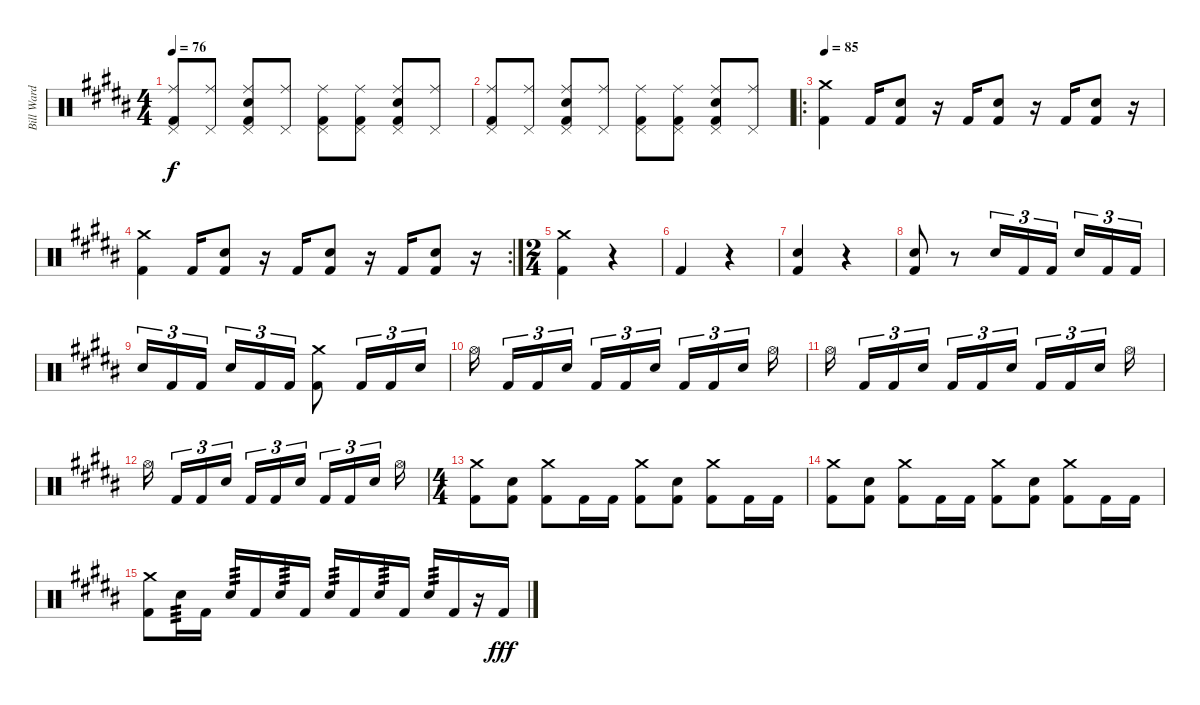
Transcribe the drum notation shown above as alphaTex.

\track ("Bill Ward" "Bill Ward") {instrument percussion}
\staff {score}
\articulation defaults
\ts (4 4)
\tempo 76
\clef neutral
\ks b
("Ride (middle)" "Pedal Hi-Hat (hit)" "Kick (hit) 2").8{dy f} ("Ride (middle)" "Pedal Hi-Hat (hit)").8 ("Ride (middle)" "Pedal Hi-Hat (hit)" "Snare (hit) 2" "Kick (hit) 2").8 ("Ride (middle)" "Pedal Hi-Hat (hit)").8 ("Ride (middle)" "Pedal Hi-Hat (hit)" "Kick (hit) 2").8 ("Ride (middle)" "Pedal Hi-Hat (hit)" "Kick (hit) 2").8 ("Ride (middle)" "Pedal Hi-Hat (hit)" "Snare (hit) 2" "Kick (hit) 2").8 ("Ride (middle)" "Pedal Hi-Hat (hit)").8 |
("Ride (middle)" "Pedal Hi-Hat (hit)" "Kick (hit) 2").8 ("Ride (middle)" "Pedal Hi-Hat (hit)").8 ("Ride (middle)" "Pedal Hi-Hat (hit)" "Snare (hit) 2" "Kick (hit) 2").8 ("Ride (middle)" "Pedal Hi-Hat (hit)").8 ("Ride (middle)" "Pedal Hi-Hat (hit)" "Kick (hit) 2").8 ("Ride (middle)" "Pedal Hi-Hat (hit)" "Kick (hit) 2").8 ("Ride (middle)" "Pedal Hi-Hat (hit)" "Snare (hit) 2" "Kick (hit) 2").8 ("Ride (middle)" "Pedal Hi-Hat (hit)").8 |
\ro
\tempo 85
("Crash medium (hit)" "Kick (hit) 2").4 "Kick (hit) 2".16 ("Snare (hit) 2" "Kick (hit) 2").8 r.16 "Kick (hit) 2".16 ("Snare (hit) 2" "Kick (hit) 2").8 r.16 "Kick (hit) 2".16 ("Snare (hit) 2" "Kick (hit) 2").8 r.16 |
\rc 2
("Crash medium (hit)" "Kick (hit) 2").4 "Kick (hit) 2".16 ("Snare (hit) 2" "Kick (hit) 2").8 r.16 "Kick (hit) 2".16 ("Snare (hit) 2" "Kick (hit) 2").8 r.16 "Kick (hit) 2".16 ("Snare (hit) 2" "Kick (hit) 2").8 r.16 |
\ts (2 4)
("Crash medium (hit)" "Kick (hit) 2").4 r.4 |
"Kick (hit) 2".4 r.4 |
("Snare (hit) 2" "Kick (hit) 2").4 r.4 |
("Snare (hit) 2" "Kick (hit) 2").8 r.8 "Snare (hit) 2".16{tu (3 2)} "Kick (hit) 2".16{tu (3 2)} "Kick (hit) 2".16{tu (3 2) beam splitsecondary} "Snare (hit) 2".16{tu (3 2)} "Kick (hit) 2".16{tu (3 2)} "Kick (hit) 2".16{tu (3 2)} |
"Snare (hit) 2".16{tu (3 2)} "Kick (hit) 2".16{tu (3 2)} "Kick (hit) 2".16{tu (3 2) beam splitsecondary} "Snare (hit) 2".16{tu (3 2)} "Kick (hit) 2".16{tu (3 2)} "Kick (hit) 2".16{tu (3 2)} ("Crash medium (hit)" "Kick (hit) 2").8 "Kick (hit) 2".16{tu (3 2)} "Kick (hit) 2".16{tu (3 2)} "Snare (hit) 2".16{tu (3 2)} |
"Hi-Hat (open)".16{beam splitsecondary} "Kick (hit) 2".16{tu (3 2)} "Kick (hit) 2".16{tu (3 2)} "Snare (hit) 2".16{tu (3 2) beam splitsecondary} "Kick (hit) 2".16{tu (3 2)} "Kick (hit) 2".16{tu (3 2)} "Snare (hit) 2".16{tu (3 2) beam splitsecondary} "Kick (hit) 2".16{tu (3 2)} "Kick (hit) 2".16{tu (3 2)} "Snare (hit) 2".16{tu (3 2) beam splitsecondary} "Hi-Hat (open)".16 |
"Hi-Hat (open)".16{beam splitsecondary} "Kick (hit) 2".16{tu (3 2)} "Kick (hit) 2".16{tu (3 2)} "Snare (hit) 2".16{tu (3 2) beam splitsecondary} "Kick (hit) 2".16{tu (3 2)} "Kick (hit) 2".16{tu (3 2)} "Snare (hit) 2".16{tu (3 2) beam splitsecondary} "Kick (hit) 2".16{tu (3 2)} "Kick (hit) 2".16{tu (3 2)} "Snare (hit) 2".16{tu (3 2) beam splitsecondary} "Hi-Hat (open)".16 |
"Hi-Hat (open)".16{beam splitsecondary} "Kick (hit) 2".16{tu (3 2)} "Kick (hit) 2".16{tu (3 2)} "Snare (hit) 2".16{tu (3 2) beam splitsecondary} "Kick (hit) 2".16{tu (3 2)} "Kick (hit) 2".16{tu (3 2)} "Snare (hit) 2".16{tu (3 2) beam splitsecondary} "Kick (hit) 2".16{tu (3 2)} "Kick (hit) 2".16{tu (3 2)} "Snare (hit) 2".16{tu (3 2) beam splitsecondary} "Hi-Hat (open)".16 |
\ts (4 4)
("Crash medium (hit)" "Kick (hit) 2").8 ("Snare (hit) 2" "Kick (hit) 2").8 ("Crash medium (hit)" "Kick (hit) 2").8 "Kick (hit) 2".16 "Kick (hit) 2".16 ("Crash medium (hit)" "Kick (hit) 2").8 ("Snare (hit) 2" "Kick (hit) 2").8 ("Crash medium (hit)" "Kick (hit) 2").8 "Kick (hit) 2".16 "Kick (hit) 2".16 |
("Crash medium (hit)" "Kick (hit) 2").8 ("Snare (hit) 2" "Kick (hit) 2").8 ("Crash medium (hit)" "Kick (hit) 2").8 "Kick (hit) 2".16 "Kick (hit) 2".16 ("Crash medium (hit)" "Kick (hit) 2").8 ("Snare (hit) 2" "Kick (hit) 2").8 ("Crash medium (hit)" "Kick (hit) 2").8 "Kick (hit) 2".16 "Kick (hit) 2".16 |
("Crash medium (hit)" "Kick (hit) 2").8 "Snare (hit) 2".16{tp 3} "Kick (hit) 2".16 "Snare (hit) 2".16{tp 3} "Kick (hit) 2".16 "Snare (hit) 2".16{tp 3} "Kick (hit) 2".16 "Snare (hit) 2".16{tp 3} "Kick (hit) 2".16 "Snare (hit) 2".16{tp 3} "Kick (hit) 2".16 "Snare (hit) 2".16{tp 3} "Kick (hit) 2".16 r.16 "Kick (hit) 2".16{dy fff}
